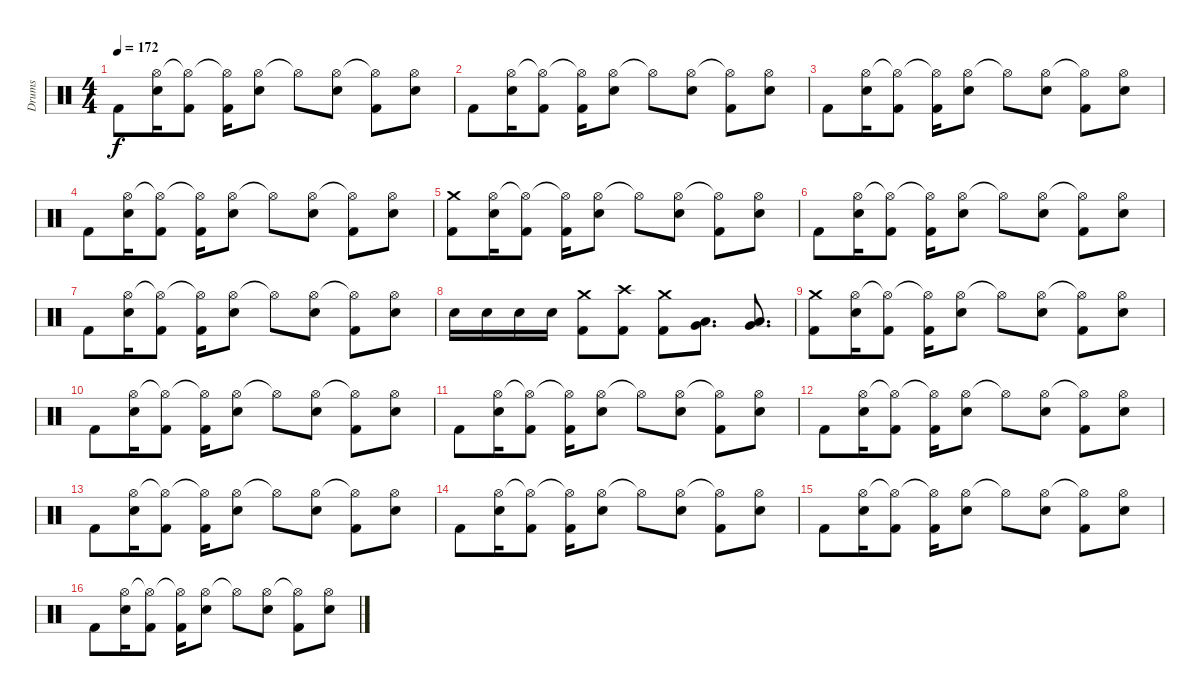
\track ("Drums" "Drums") {instrument percussion}
\staff {score}
\articulation defaults
\ts (4 4)
\tempo 172
\clef neutral
\ks c "Kick (hit) 2".8{dy f}
("Hi-Hat (open)" "Electric Snare (hit)").16 ("Hi-Hat (open)"{t} "Kick (hit) 2").8 ("Hi-Hat (open)"{t} "Kick (hit) 2").16 ("Hi-Hat (open)" "Electric Snare (hit)").8 "Hi-Hat (open)"{t}.8 ("Hi-Hat (open)" "Electric Snare (hit)").8 ("Hi-Hat (open)"{t} "Kick (hit) 2").8 ("Hi-Hat (open)" "Electric Snare (hit)").8 |
"Kick (hit) 2".8 ("Hi-Hat (open)" "Electric Snare (hit)").16 ("Hi-Hat (open)"{t} "Kick (hit) 2").8 ("Hi-Hat (open)"{t} "Kick (hit) 2").16 ("Hi-Hat (open)" "Electric Snare (hit)").8 "Hi-Hat (open)"{t}.8 ("Hi-Hat (open)" "Electric Snare (hit)").8 ("Hi-Hat (open)"{t} "Kick (hit) 2").8 ("Hi-Hat (open)" "Electric Snare (hit)").8 |
"Kick (hit) 2".8 ("Hi-Hat (open)" "Electric Snare (hit)").16 ("Hi-Hat (open)"{t} "Kick (hit) 2").8 ("Hi-Hat (open)"{t} "Kick (hit) 2").16 ("Hi-Hat (open)" "Electric Snare (hit)").8 "Hi-Hat (open)"{t}.8 ("Hi-Hat (open)" "Electric Snare (hit)").8 ("Hi-Hat (open)"{t} "Kick (hit) 2").8 ("Hi-Hat (open)" "Electric Snare (hit)").8 |
"Kick (hit) 2".8 ("Hi-Hat (open)" "Electric Snare (hit)").16 ("Hi-Hat (open)"{t} "Kick (hit) 2").8 ("Hi-Hat (open)"{t} "Kick (hit) 2").16 ("Hi-Hat (open)" "Electric Snare (hit)").8 "Hi-Hat (open)"{t}.8 ("Hi-Hat (open)" "Electric Snare (hit)").8 ("Hi-Hat (open)"{t} "Kick (hit) 2").8 ("Hi-Hat (open)" "Electric Snare (hit)").8 |
("Crash medium (hit)" "Kick (hit) 2").8 ("Hi-Hat (open)" "Electric Snare (hit)").16 ("Hi-Hat (open)"{t} "Kick (hit) 2").8 ("Hi-Hat (open)"{t} "Kick (hit) 2").16 ("Hi-Hat (open)" "Electric Snare (hit)").8 "Hi-Hat (open)"{t}.8 ("Hi-Hat (open)" "Electric Snare (hit)").8 ("Hi-Hat (open)"{t} "Kick (hit) 2").8 ("Hi-Hat (open)" "Electric Snare (hit)").8 |
"Kick (hit) 2".8 ("Hi-Hat (open)" "Electric Snare (hit)").16 ("Hi-Hat (open)"{t} "Kick (hit) 2").8 ("Hi-Hat (open)"{t} "Kick (hit) 2").16 ("Hi-Hat (open)" "Electric Snare (hit)").8 "Hi-Hat (open)"{t}.8 ("Hi-Hat (open)" "Electric Snare (hit)").8 ("Hi-Hat (open)"{t} "Kick (hit) 2").8 ("Hi-Hat (open)" "Electric Snare (hit)").8 |
"Kick (hit) 2".8 ("Hi-Hat (open)" "Electric Snare (hit)").16 ("Hi-Hat (open)"{t} "Kick (hit) 2").8 ("Hi-Hat (open)"{t} "Kick (hit) 2").16 ("Hi-Hat (open)" "Electric Snare (hit)").8 "Hi-Hat (open)"{t}.8 ("Hi-Hat (open)" "Electric Snare (hit)").8 ("Hi-Hat (open)"{t} "Kick (hit) 2").8 ("Hi-Hat (open)" "Electric Snare (hit)").8 |
"Electric Snare (hit)".16 "Electric Snare (hit)".16 "Electric Snare (hit)".16 "Electric Snare (hit)".16 ("Crash medium (hit)" "Kick (hit) 2").8 ("Crash high (hit)" "Kick (hit) 2").8 ("Crash medium (hit)" "Kick (hit) 2").8 ("Low Tom (hit)" "Very Low Tom (hit)").8{d} ("Very Low Tom (hit)" "Low Floor Tom (hit)").8{d} |
("Crash medium (hit)" "Kick (hit) 2").8 ("Hi-Hat (open)" "Electric Snare (hit)").16 ("Hi-Hat (open)"{t} "Kick (hit) 2").8 ("Hi-Hat (open)"{t} "Kick (hit) 2").16 ("Hi-Hat (open)" "Electric Snare (hit)").8 "Hi-Hat (open)"{t}.8 ("Hi-Hat (open)" "Electric Snare (hit)").8 ("Hi-Hat (open)"{t} "Kick (hit) 2").8 ("Hi-Hat (open)" "Electric Snare (hit)").8 |
"Kick (hit) 2".8 ("Hi-Hat (open)" "Electric Snare (hit)").16 ("Hi-Hat (open)"{t} "Kick (hit) 2").8 ("Hi-Hat (open)"{t} "Kick (hit) 2").16 ("Hi-Hat (open)" "Electric Snare (hit)").8 "Hi-Hat (open)"{t}.8 ("Hi-Hat (open)" "Electric Snare (hit)").8 ("Hi-Hat (open)"{t} "Kick (hit) 2").8 ("Hi-Hat (open)" "Electric Snare (hit)").8 |
"Kick (hit) 2".8 ("Hi-Hat (open)" "Electric Snare (hit)").16 ("Hi-Hat (open)"{t} "Kick (hit) 2").8 ("Hi-Hat (open)"{t} "Kick (hit) 2").16 ("Hi-Hat (open)" "Electric Snare (hit)").8 "Hi-Hat (open)"{t}.8 ("Hi-Hat (open)" "Electric Snare (hit)").8 ("Hi-Hat (open)"{t} "Kick (hit) 2").8 ("Hi-Hat (open)" "Electric Snare (hit)").8 |
"Kick (hit) 2".8 ("Hi-Hat (open)" "Electric Snare (hit)").16 ("Hi-Hat (open)"{t} "Kick (hit) 2").8 ("Hi-Hat (open)"{t} "Kick (hit) 2").16 ("Hi-Hat (open)" "Electric Snare (hit)").8 "Hi-Hat (open)"{t}.8 ("Hi-Hat (open)" "Electric Snare (hit)").8 ("Hi-Hat (open)"{t} "Kick (hit) 2").8 ("Hi-Hat (open)" "Electric Snare (hit)").8 |
"Kick (hit) 2".8 ("Hi-Hat (open)" "Electric Snare (hit)").16 ("Hi-Hat (open)"{t} "Kick (hit) 2").8 ("Hi-Hat (open)"{t} "Kick (hit) 2").16 ("Hi-Hat (open)" "Electric Snare (hit)").8 "Hi-Hat (open)"{t}.8 ("Hi-Hat (open)" "Electric Snare (hit)").8 ("Hi-Hat (open)"{t} "Kick (hit) 2").8 ("Hi-Hat (open)" "Electric Snare (hit)").8 |
"Kick (hit) 2".8 ("Hi-Hat (open)" "Electric Snare (hit)").16 ("Hi-Hat (open)"{t} "Kick (hit) 2").8 ("Hi-Hat (open)"{t} "Kick (hit) 2").16 ("Hi-Hat (open)" "Electric Snare (hit)").8 "Hi-Hat (open)"{t}.8 ("Hi-Hat (open)" "Electric Snare (hit)").8 ("Hi-Hat (open)"{t} "Kick (hit) 2").8 ("Hi-Hat (open)" "Electric Snare (hit)").8 |
"Kick (hit) 2".8 ("Hi-Hat (open)" "Electric Snare (hit)").16 ("Hi-Hat (open)"{t} "Kick (hit) 2").8 ("Hi-Hat (open)"{t} "Kick (hit) 2").16 ("Hi-Hat (open)" "Electric Snare (hit)").8 "Hi-Hat (open)"{t}.8 ("Hi-Hat (open)" "Electric Snare (hit)").8 ("Hi-Hat (open)"{t} "Kick (hit) 2").8 ("Hi-Hat (open)" "Electric Snare (hit)").8 |
"Kick (hit) 2".8 ("Hi-Hat (open)" "Electric Snare (hit)").16 ("Hi-Hat (open)"{t} "Kick (hit) 2").8 ("Hi-Hat (open)"{t} "Kick (hit) 2").16 ("Hi-Hat (open)" "Electric Snare (hit)").8 "Hi-Hat (open)"{t}.8 ("Hi-Hat (open)" "Electric Snare (hit)").8 ("Hi-Hat (open)"{t} "Kick (hit) 2").8 ("Hi-Hat (open)" "Electric Snare (hit)").8
